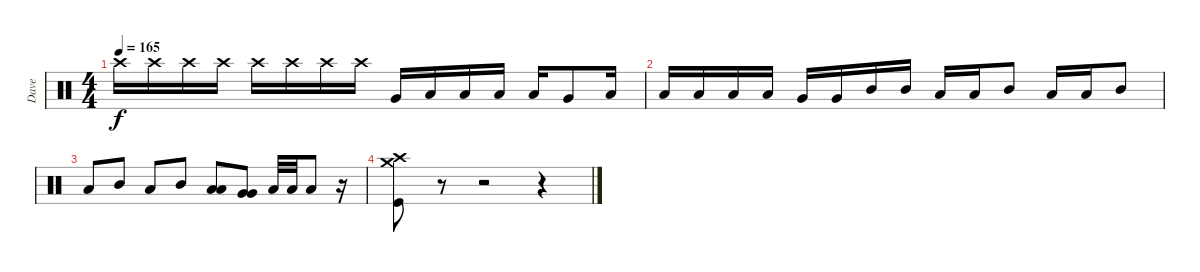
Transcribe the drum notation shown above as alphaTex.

\track ("Dave" "Dave") {instrument percussion}
\staff {score}
\articulation defaults
\ts (4 4)
\tempo 165
\clef neutral
\ks c "Crash high (hit)".16{dy f} "Crash high (hit)".16 "Crash high (hit)".16 "Crash high (hit)".16 "Crash high (hit)".16 "Crash high (hit)".16 "Crash high (hit)".16 "Crash high (hit)".16 "Very Low Tom (hit)".16 "Low Tom (hit)".16 "Low Tom (hit)".16 "Low Tom (hit)".16 "Low Tom (hit)".16 "Very Low Tom (hit)".8 "Low Tom (hit)".16
|
"Low Tom (hit)".16 "Low Tom (hit)".16 "Low Tom (hit)".16 "Low Tom (hit)".16 "Very Low Tom (hit)".16 "Very Low Tom (hit)".16 "Mid Tom (hit)".16 "Mid Tom (hit)".16 "Low Tom (hit)".16 "Low Tom (hit)".16 "Mid Tom (hit)".8 "Low Tom (hit)".16 "Low Tom (hit)".16 "Mid Tom (hit)".8 |
"Low Tom (hit)".8 "Mid Tom (hit)".8 "Low Tom (hit)".8 "Mid Tom (hit)".8 ("Low Tom (hit)" "Low Tom (hit)").8 ("Very Low Tom (hit)" "Very Low Tom (hit)").8 "Low Tom (hit)".32 "Low Tom (hit)".32 "Low Tom (hit)".8 r.16 |
("Crash medium (hit)" "Crash high (hit)" "Kick (hit)").8 r.8 r.2 r.4
